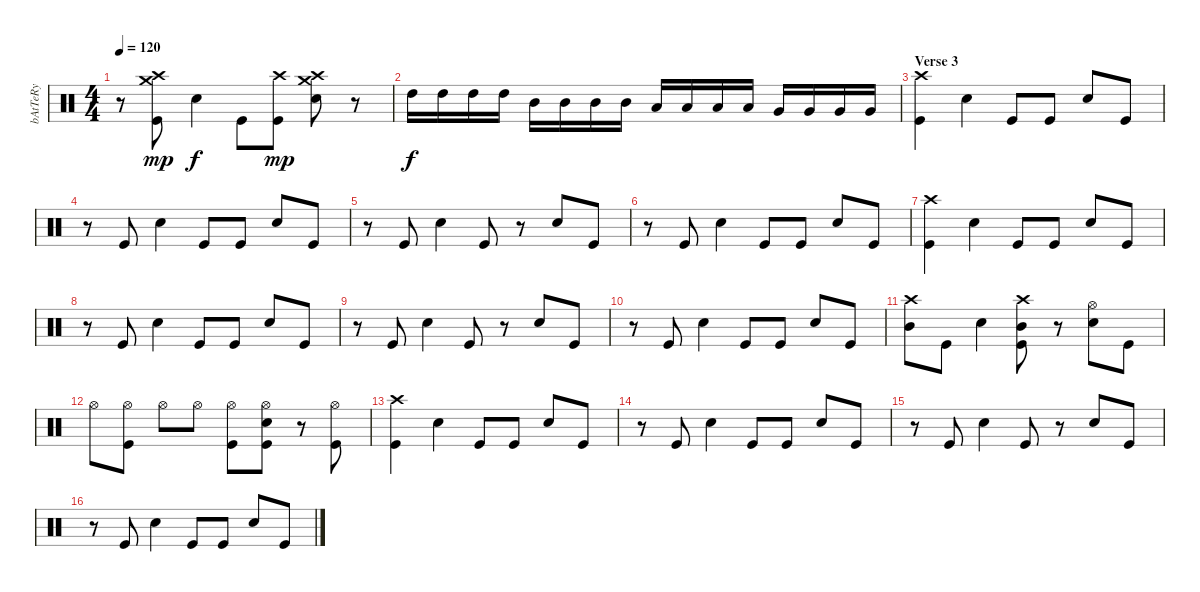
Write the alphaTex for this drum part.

\track ("bAtTeRy" "bAtTeRy") {instrument percussion}
\staff {score}
\articulation defaults
\ts (4 4)
\tempo 120
\clef neutral
\ks c
r.8{dy f} ("Crash medium (hit)" "Crash high (hit)" "Kick (hit)").8{dy mp} "Electric Snare (hit)".4{dy f} "Kick (hit)".8 ("Crash high (hit)" "Kick (hit)").8{dy mp} ("Crash medium (hit)" "Crash high (hit)" "Electric Snare (hit)").8 r.8 |
"High Tom (hit)".16{dy f} "High Tom (hit)".16 "High Tom (hit)".16 "High Tom (hit)".16 "Mid Tom (hit)".16 "Mid Tom (hit)".16 "Mid Tom (hit)".16 "Mid Tom (hit)".16 "Low Tom (hit)".16 "Low Tom (hit)".16 "Low Tom (hit)".16 "Low Tom (hit)".16 "Very Low Tom (hit)".16 "Very Low Tom (hit)".16 "Very Low Tom (hit)".16 "Very Low Tom (hit)".16 |
\section ("" "Verse 3")
("Crash high (hit)" "Kick (hit)").4 "Electric Snare (hit)".4 "Kick (hit)".8 "Kick (hit)".8 "Electric Snare (hit)".8 "Kick (hit)".8 |
r.8 "Kick (hit)".8 "Electric Snare (hit)".4 "Kick (hit)".8 "Kick (hit)".8 "Electric Snare (hit)".8 "Kick (hit)".8 |
r.8 "Kick (hit)".8 "Electric Snare (hit)".4 "Kick (hit)".8 r.8 "Electric Snare (hit)".8 "Kick (hit)".8 |
r.8 "Kick (hit)".8 "Electric Snare (hit)".4 "Kick (hit)".8 "Kick (hit)".8 "Electric Snare (hit)".8 "Kick (hit)".8 |
("Crash high (hit)" "Kick (hit)").4 "Electric Snare (hit)".4 "Kick (hit)".8 "Kick (hit)".8 "Electric Snare (hit)".8 "Kick (hit)".8 |
r.8 "Kick (hit)".8 "Electric Snare (hit)".4 "Kick (hit)".8 "Kick (hit)".8 "Electric Snare (hit)".8 "Kick (hit)".8 |
r.8 "Kick (hit)".8 "Electric Snare (hit)".4 "Kick (hit)".8 r.8 "Electric Snare (hit)".8 "Kick (hit)".8 |
r.8 "Kick (hit)".8 "Electric Snare (hit)".4 "Kick (hit)".8 "Kick (hit)".8 "Electric Snare (hit)".8 "Kick (hit)".8 |
("Crash high (hit)" "Mid Tom (hit)").8 "Kick (hit)".8 "Electric Snare (hit)".4 ("Crash high (hit)" "Mid Tom (hit)" "Kick (hit)").8 r.8 ("Hi-Hat (open)" "Electric Snare (hit)").8 "Kick (hit)".8 |
"Hi-Hat (open)".8 ("Hi-Hat (open)" "Kick (hit)").8 "Hi-Hat (open)".8 "Hi-Hat (open)".8 ("Hi-Hat (open)" "Kick (hit)").8 ("Hi-Hat (open)" "Electric Snare (hit)" "Kick (hit)").8 r.8 ("Hi-Hat (open)" "Kick (hit)").8 |
("Crash high (hit)" "Kick (hit)").4 "Electric Snare (hit)".4 "Kick (hit)".8 "Kick (hit)".8 "Electric Snare (hit)".8 "Kick (hit)".8 |
r.8 "Kick (hit)".8 "Electric Snare (hit)".4 "Kick (hit)".8 "Kick (hit)".8 "Electric Snare (hit)".8 "Kick (hit)".8 |
r.8 "Kick (hit)".8 "Electric Snare (hit)".4 "Kick (hit)".8 r.8 "Electric Snare (hit)".8 "Kick (hit)".8 |
r.8 "Kick (hit)".8 "Electric Snare (hit)".4 "Kick (hit)".8 "Kick (hit)".8 "Electric Snare (hit)".8 "Kick (hit)".8
